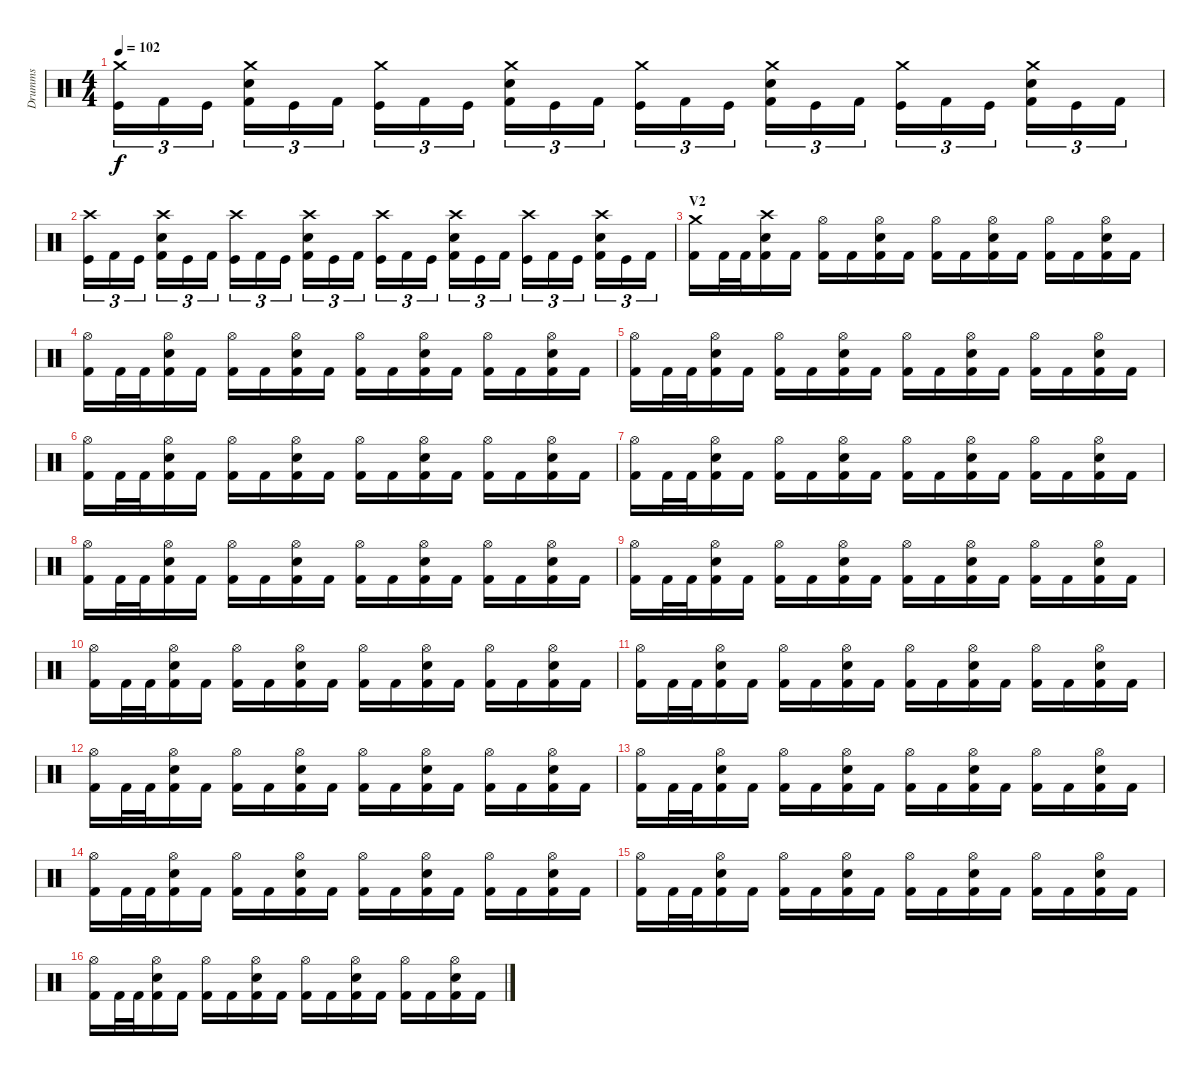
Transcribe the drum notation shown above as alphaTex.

\track ("Drumms" "Drumms") {instrument percussion}
\staff {score}
\articulation defaults
\ts (4 4)
\tempo 102
\clef neutral
\ks c
("Crash medium (hit)" "Kick (hit)").16{tu (3 2) dy f} "Kick (hit) 2".16{tu (3 2)} "Kick (hit)".16{tu (3 2)} ("Crash medium (hit)" "Snare (hit) 2" "Kick (hit) 2").16{tu (3 2)} "Kick (hit)".16{tu (3 2)} "Kick (hit) 2".16{tu (3 2)} ("Crash medium (hit)" "Kick (hit)").16{tu (3 2)} "Kick (hit) 2".16{tu (3 2)} "Kick (hit)".16{tu (3 2)} ("Crash medium (hit)" "Snare (hit) 2" "Kick (hit) 2").16{tu (3 2)} "Kick (hit)".16{tu (3 2)} "Kick (hit) 2".16{tu (3 2)} ("Crash medium (hit)" "Kick (hit)").16{tu (3 2)} "Kick (hit) 2".16{tu (3 2)} "Kick (hit)".16{tu (3 2)} ("Crash medium (hit)" "Snare (hit) 2" "Kick (hit) 2").16{tu (3 2)} "Kick (hit)".16{tu (3 2)} "Kick (hit) 2".16{tu (3 2)} ("Crash medium (hit)" "Kick (hit)").16{tu (3 2)} "Kick (hit) 2".16{tu (3 2)} "Kick (hit)".16{tu (3 2)} ("Crash medium (hit)" "Snare (hit) 2" "Kick (hit) 2").16{tu (3 2)} "Kick (hit)".16{tu (3 2)} "Kick (hit) 2".16{tu (3 2)} |
("Crash high (hit)" "Kick (hit)").16{tu (3 2)} "Kick (hit) 2".16{tu (3 2)} "Kick (hit)".16{tu (3 2)} ("Crash high (hit)" "Snare (hit) 2" "Kick (hit) 2").16{tu (3 2)} "Kick (hit)".16{tu (3 2)} "Kick (hit) 2".16{tu (3 2)} ("Crash high (hit)" "Kick (hit)").16{tu (3 2)} "Kick (hit) 2".16{tu (3 2)} "Kick (hit)".16{tu (3 2)} ("Crash high (hit)" "Snare (hit) 2" "Kick (hit) 2").16{tu (3 2)} "Kick (hit)".16{tu (3 2)} "Kick (hit) 2".16{tu (3 2)} ("Crash high (hit)" "Kick (hit)").16{tu (3 2)} "Kick (hit) 2".16{tu (3 2)} "Kick (hit)".16{tu (3 2)} ("Crash high (hit)" "Snare (hit) 2" "Kick (hit) 2").16{tu (3 2)} "Kick (hit)".16{tu (3 2)} "Kick (hit) 2".16{tu (3 2)} ("Crash high (hit)" "Kick (hit)").16{tu (3 2)} "Kick (hit) 2".16{tu (3 2)} "Kick (hit)".16{tu (3 2)} ("Crash high (hit)" "Snare (hit) 2" "Kick (hit) 2").16{tu (3 2)} "Kick (hit)".16{tu (3 2)} "Kick (hit) 2".16{tu (3 2)} |
\section ("" "V2")
("Crash medium (hit)" "Kick (hit) 2").16 "Kick (hit) 2".32 "Kick (hit) 2".32 ("Crash high (hit)" "Snare (hit) 2" "Kick (hit) 2").16 "Kick (hit) 2".16 ("Hi-Hat (open)" "Kick (hit) 2").16 "Kick (hit) 2".16 ("Hi-Hat (open)" "Snare (hit) 2" "Kick (hit) 2").16 "Kick (hit) 2".16 ("Hi-Hat (open)" "Kick (hit) 2").16 "Kick (hit) 2".16 ("Hi-Hat (open)" "Snare (hit) 2" "Kick (hit) 2").16 "Kick (hit) 2".16 ("Hi-Hat (open)" "Kick (hit) 2").16 "Kick (hit) 2".16 ("Hi-Hat (open)" "Snare (hit) 2" "Kick (hit) 2").16 "Kick (hit) 2".16 |
("Hi-Hat (open)" "Kick (hit) 2").16 "Kick (hit) 2".32 "Kick (hit) 2".32 ("Hi-Hat (open)" "Snare (hit) 2" "Kick (hit) 2").16 "Kick (hit) 2".16 ("Hi-Hat (open)" "Kick (hit) 2").16 "Kick (hit) 2".16 ("Hi-Hat (open)" "Snare (hit) 2" "Kick (hit) 2").16 "Kick (hit) 2".16 ("Hi-Hat (open)" "Kick (hit) 2").16 "Kick (hit) 2".16 ("Hi-Hat (open)" "Snare (hit) 2" "Kick (hit) 2").16 "Kick (hit) 2".16 ("Hi-Hat (open)" "Kick (hit) 2").16 "Kick (hit) 2".16 ("Hi-Hat (open)" "Snare (hit) 2" "Kick (hit) 2").16 "Kick (hit) 2".16 |
("Hi-Hat (open)" "Kick (hit) 2").16 "Kick (hit) 2".32 "Kick (hit) 2".32 ("Hi-Hat (open)" "Snare (hit) 2" "Kick (hit) 2").16 "Kick (hit) 2".16 ("Hi-Hat (open)" "Kick (hit) 2").16 "Kick (hit) 2".16 ("Hi-Hat (open)" "Snare (hit) 2" "Kick (hit) 2").16 "Kick (hit) 2".16 ("Hi-Hat (open)" "Kick (hit) 2").16 "Kick (hit) 2".16 ("Hi-Hat (open)" "Snare (hit) 2" "Kick (hit) 2").16 "Kick (hit) 2".16 ("Hi-Hat (open)" "Kick (hit) 2").16 "Kick (hit) 2".16 ("Hi-Hat (open)" "Snare (hit) 2" "Kick (hit) 2").16 "Kick (hit) 2".16 |
("Hi-Hat (open)" "Kick (hit) 2").16 "Kick (hit) 2".32 "Kick (hit) 2".32 ("Hi-Hat (open)" "Snare (hit) 2" "Kick (hit) 2").16 "Kick (hit) 2".16 ("Hi-Hat (open)" "Kick (hit) 2").16 "Kick (hit) 2".16 ("Hi-Hat (open)" "Snare (hit) 2" "Kick (hit) 2").16 "Kick (hit) 2".16 ("Hi-Hat (open)" "Kick (hit) 2").16 "Kick (hit) 2".16 ("Hi-Hat (open)" "Snare (hit) 2" "Kick (hit) 2").16 "Kick (hit) 2".16 ("Hi-Hat (open)" "Kick (hit) 2").16 "Kick (hit) 2".16 ("Hi-Hat (open)" "Snare (hit) 2" "Kick (hit) 2").16 "Kick (hit) 2".16 |
("Hi-Hat (open)" "Kick (hit) 2").16 "Kick (hit) 2".32 "Kick (hit) 2".32 ("Hi-Hat (open)" "Snare (hit) 2" "Kick (hit) 2").16 "Kick (hit) 2".16 ("Hi-Hat (open)" "Kick (hit) 2").16 "Kick (hit) 2".16 ("Hi-Hat (open)" "Snare (hit) 2" "Kick (hit) 2").16 "Kick (hit) 2".16 ("Hi-Hat (open)" "Kick (hit) 2").16 "Kick (hit) 2".16 ("Hi-Hat (open)" "Snare (hit) 2" "Kick (hit) 2").16 "Kick (hit) 2".16 ("Hi-Hat (open)" "Kick (hit) 2").16 "Kick (hit) 2".16 ("Hi-Hat (open)" "Snare (hit) 2" "Kick (hit) 2").16 "Kick (hit) 2".16 |
("Hi-Hat (open)" "Kick (hit) 2").16 "Kick (hit) 2".32 "Kick (hit) 2".32 ("Hi-Hat (open)" "Snare (hit) 2" "Kick (hit) 2").16 "Kick (hit) 2".16 ("Hi-Hat (open)" "Kick (hit) 2").16 "Kick (hit) 2".16 ("Hi-Hat (open)" "Snare (hit) 2" "Kick (hit) 2").16 "Kick (hit) 2".16 ("Hi-Hat (open)" "Kick (hit) 2").16 "Kick (hit) 2".16 ("Hi-Hat (open)" "Snare (hit) 2" "Kick (hit) 2").16 "Kick (hit) 2".16 ("Hi-Hat (open)" "Kick (hit) 2").16 "Kick (hit) 2".16 ("Hi-Hat (open)" "Snare (hit) 2" "Kick (hit) 2").16 "Kick (hit) 2".16 |
("Hi-Hat (open)" "Kick (hit) 2").16 "Kick (hit) 2".32 "Kick (hit) 2".32 ("Hi-Hat (open)" "Snare (hit) 2" "Kick (hit) 2").16 "Kick (hit) 2".16 ("Hi-Hat (open)" "Kick (hit) 2").16 "Kick (hit) 2".16 ("Hi-Hat (open)" "Snare (hit) 2" "Kick (hit) 2").16 "Kick (hit) 2".16 ("Hi-Hat (open)" "Kick (hit) 2").16 "Kick (hit) 2".16 ("Hi-Hat (open)" "Snare (hit) 2" "Kick (hit) 2").16 "Kick (hit) 2".16 ("Hi-Hat (open)" "Kick (hit) 2").16 "Kick (hit) 2".16 ("Hi-Hat (open)" "Snare (hit) 2" "Kick (hit) 2").16 "Kick (hit) 2".16 |
("Hi-Hat (open)" "Kick (hit) 2").16 "Kick (hit) 2".32 "Kick (hit) 2".32 ("Hi-Hat (open)" "Snare (hit) 2" "Kick (hit) 2").16 "Kick (hit) 2".16 ("Hi-Hat (open)" "Kick (hit) 2").16 "Kick (hit) 2".16 ("Hi-Hat (open)" "Snare (hit) 2" "Kick (hit) 2").16 "Kick (hit) 2".16 ("Hi-Hat (open)" "Kick (hit) 2").16 "Kick (hit) 2".16 ("Hi-Hat (open)" "Snare (hit) 2" "Kick (hit) 2").16 "Kick (hit) 2".16 ("Hi-Hat (open)" "Kick (hit) 2").16 "Kick (hit) 2".16 ("Hi-Hat (open)" "Snare (hit) 2" "Kick (hit) 2").16 "Kick (hit) 2".16 |
("Hi-Hat (open)" "Kick (hit) 2").16 "Kick (hit) 2".32 "Kick (hit) 2".32 ("Hi-Hat (open)" "Snare (hit) 2" "Kick (hit) 2").16 "Kick (hit) 2".16 ("Hi-Hat (open)" "Kick (hit) 2").16 "Kick (hit) 2".16 ("Hi-Hat (open)" "Snare (hit) 2" "Kick (hit) 2").16 "Kick (hit) 2".16 ("Hi-Hat (open)" "Kick (hit) 2").16 "Kick (hit) 2".16 ("Hi-Hat (open)" "Snare (hit) 2" "Kick (hit) 2").16 "Kick (hit) 2".16 ("Hi-Hat (open)" "Kick (hit) 2").16 "Kick (hit) 2".16 ("Hi-Hat (open)" "Snare (hit) 2" "Kick (hit) 2").16 "Kick (hit) 2".16 |
("Hi-Hat (open)" "Kick (hit) 2").16 "Kick (hit) 2".32 "Kick (hit) 2".32 ("Hi-Hat (open)" "Snare (hit) 2" "Kick (hit) 2").16 "Kick (hit) 2".16 ("Hi-Hat (open)" "Kick (hit) 2").16 "Kick (hit) 2".16 ("Hi-Hat (open)" "Snare (hit) 2" "Kick (hit) 2").16 "Kick (hit) 2".16 ("Hi-Hat (open)" "Kick (hit) 2").16 "Kick (hit) 2".16 ("Hi-Hat (open)" "Snare (hit) 2" "Kick (hit) 2").16 "Kick (hit) 2".16 ("Hi-Hat (open)" "Kick (hit) 2").16 "Kick (hit) 2".16 ("Hi-Hat (open)" "Snare (hit) 2" "Kick (hit) 2").16 "Kick (hit) 2".16 |
("Hi-Hat (open)" "Kick (hit) 2").16 "Kick (hit) 2".32 "Kick (hit) 2".32 ("Hi-Hat (open)" "Snare (hit) 2" "Kick (hit) 2").16 "Kick (hit) 2".16 ("Hi-Hat (open)" "Kick (hit) 2").16 "Kick (hit) 2".16 ("Hi-Hat (open)" "Snare (hit) 2" "Kick (hit) 2").16 "Kick (hit) 2".16 ("Hi-Hat (open)" "Kick (hit) 2").16 "Kick (hit) 2".16 ("Hi-Hat (open)" "Snare (hit) 2" "Kick (hit) 2").16 "Kick (hit) 2".16 ("Hi-Hat (open)" "Kick (hit) 2").16 "Kick (hit) 2".16 ("Hi-Hat (open)" "Snare (hit) 2" "Kick (hit) 2").16 "Kick (hit) 2".16 |
("Hi-Hat (open)" "Kick (hit) 2").16 "Kick (hit) 2".32 "Kick (hit) 2".32 ("Hi-Hat (open)" "Snare (hit) 2" "Kick (hit) 2").16 "Kick (hit) 2".16 ("Hi-Hat (open)" "Kick (hit) 2").16 "Kick (hit) 2".16 ("Hi-Hat (open)" "Snare (hit) 2" "Kick (hit) 2").16 "Kick (hit) 2".16 ("Hi-Hat (open)" "Kick (hit) 2").16 "Kick (hit) 2".16 ("Hi-Hat (open)" "Snare (hit) 2" "Kick (hit) 2").16 "Kick (hit) 2".16 ("Hi-Hat (open)" "Kick (hit) 2").16 "Kick (hit) 2".16 ("Hi-Hat (open)" "Snare (hit) 2" "Kick (hit) 2").16 "Kick (hit) 2".16 |
("Hi-Hat (open)" "Kick (hit) 2").16 "Kick (hit) 2".32 "Kick (hit) 2".32 ("Hi-Hat (open)" "Snare (hit) 2" "Kick (hit) 2").16 "Kick (hit) 2".16 ("Hi-Hat (open)" "Kick (hit) 2").16 "Kick (hit) 2".16 ("Hi-Hat (open)" "Snare (hit) 2" "Kick (hit) 2").16 "Kick (hit) 2".16 ("Hi-Hat (open)" "Kick (hit) 2").16 "Kick (hit) 2".16 ("Hi-Hat (open)" "Snare (hit) 2" "Kick (hit) 2").16 "Kick (hit) 2".16 ("Hi-Hat (open)" "Kick (hit) 2").16 "Kick (hit) 2".16 ("Hi-Hat (open)" "Snare (hit) 2" "Kick (hit) 2").16 "Kick (hit) 2".16 |
("Hi-Hat (open)" "Kick (hit) 2").16 "Kick (hit) 2".32 "Kick (hit) 2".32 ("Hi-Hat (open)" "Snare (hit) 2" "Kick (hit) 2").16 "Kick (hit) 2".16 ("Hi-Hat (open)" "Kick (hit) 2").16 "Kick (hit) 2".16 ("Hi-Hat (open)" "Snare (hit) 2" "Kick (hit) 2").16 "Kick (hit) 2".16 ("Hi-Hat (open)" "Kick (hit) 2").16 "Kick (hit) 2".16 ("Hi-Hat (open)" "Snare (hit) 2" "Kick (hit) 2").16 "Kick (hit) 2".16 ("Hi-Hat (open)" "Kick (hit) 2").16 "Kick (hit) 2".16 ("Hi-Hat (open)" "Snare (hit) 2" "Kick (hit) 2").16 "Kick (hit) 2".16
